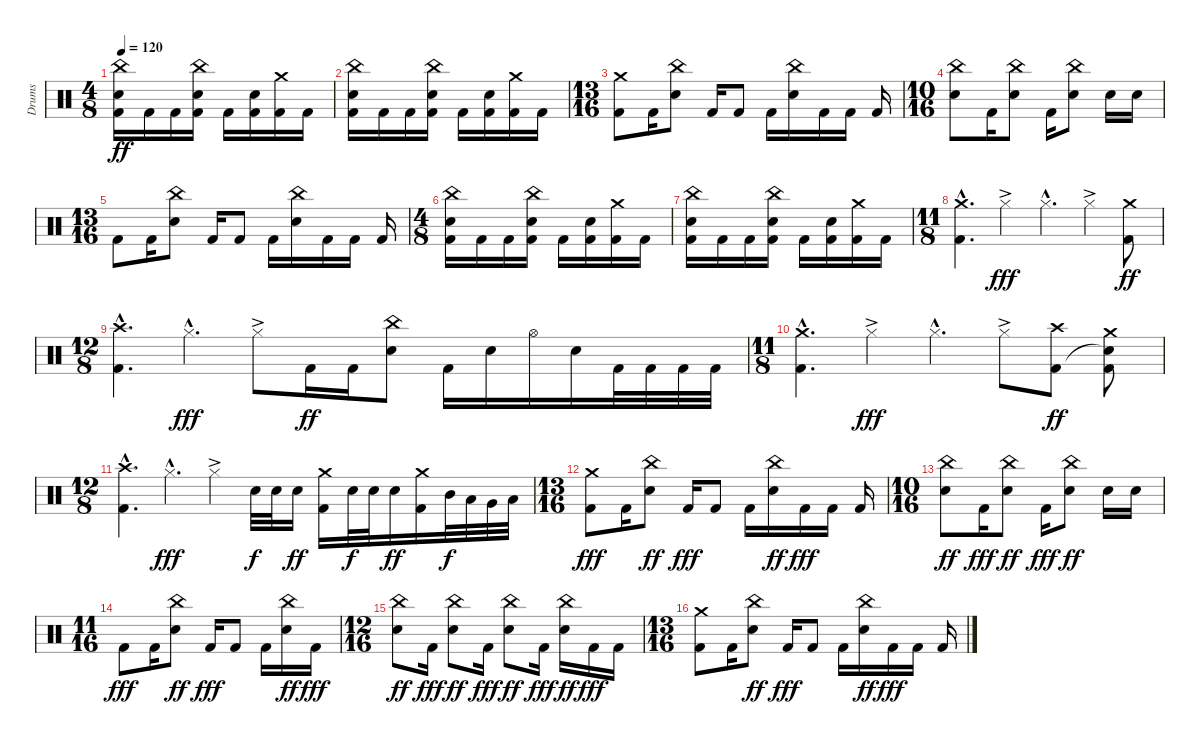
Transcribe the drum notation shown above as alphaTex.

\track ("Drums" "Drums") {instrument percussion}
\staff {score}
\articulation defaults
\ts (4 8)
\tempo 120
\clef neutral
\ks c
("China (hit)" "Snare (hit) 2" "Kick (hit) 2").16{dy ff} "Kick (hit) 2".16 "Kick (hit) 2".16 ("China (hit)" "Snare (hit) 2" "Kick (hit) 2").16 "Kick (hit) 2".16 ("Snare (hit) 2" "Kick (hit) 2").16 ("Crash medium (hit)" "Kick (hit) 2").16 "Kick (hit) 2".16 |
("China (hit)" "Snare (hit) 2" "Kick (hit) 2").16 "Kick (hit) 2".16 "Kick (hit) 2".16 ("China (hit)" "Snare (hit) 2" "Kick (hit) 2").16 "Kick (hit) 2".16 ("Snare (hit) 2" "Kick (hit) 2").16 ("Crash medium (hit)" "Kick (hit) 2").16 "Kick (hit) 2".16 |
\ts (13 16)
("Crash medium (hit)" "Kick (hit) 2").8 "Kick (hit) 2".16 ("China (hit)" "Snare (hit) 2").8 "Kick (hit) 2".16 "Kick (hit) 2".8 "Kick (hit) 2".16 ("China (hit)" "Snare (hit) 2").16 "Kick (hit) 2".16 "Kick (hit) 2".16 "Kick (hit) 2".16 |
\ts (10 16)
("China (hit)" "Snare (hit) 2").8 "Kick (hit) 2".16 ("China (hit)" "Snare (hit) 2").8 "Kick (hit) 2".16 ("China (hit)" "Snare (hit) 2").8 "Snare (hit) 2".16 "Snare (hit) 2".16 |
\ts (13 16)
"Kick (hit) 2".8 "Kick (hit) 2".16 ("China (hit)" "Snare (hit) 2").8 "Kick (hit) 2".16 "Kick (hit) 2".8 "Kick (hit) 2".16 ("China (hit)" "Snare (hit) 2").16 "Kick (hit) 2".16 "Kick (hit) 2".16 "Kick (hit) 2".16 |
\ts (4 8)
("China (hit)" "Snare (hit) 2" "Kick (hit) 2").16 "Kick (hit) 2".16 "Kick (hit) 2".16 ("China (hit)" "Snare (hit) 2" "Kick (hit) 2").16 "Kick (hit) 2".16 ("Snare (hit) 2" "Kick (hit) 2").16 ("Crash medium (hit)" "Kick (hit) 2").16 "Kick (hit) 2".16 |
("China (hit)" "Snare (hit) 2" "Kick (hit) 2").16 "Kick (hit) 2".16 "Kick (hit) 2".16 ("China (hit)" "Snare (hit) 2" "Kick (hit) 2").16 "Kick (hit) 2".16 ("Snare (hit) 2" "Kick (hit) 2").16 ("Crash medium (hit)" "Kick (hit) 2").16 "Kick (hit) 2".16 |
\ts (11 8)
("Crash medium (hit)"{hac} "Kick (hit) 2"{hac}).4{d} "Hi-Hat (closed)"{ac}.4{dy fff} "Hi-Hat (closed)"{hac}.4{d} "Hi-Hat (closed)"{ac}.4 ("Crash medium (hit)" "Kick (hit) 2").8{dy ff} |
\ts (12 8)
("Crash high (hit)"{hac} "Kick (hit) 2"{hac}).4{d} "Hi-Hat (closed)"{hac}.4{d dy fff} "Hi-Hat (closed)"{ac}.8 "Kick (hit) 2".16{dy ff} "Kick (hit) 2".16 ("China (hit)" "Snare (hit) 2").8 "Kick (hit) 2".16 "Snare (hit) 2".16 "Hi-Hat (open)".16 "Snare (hit) 2".16 "Kick (hit) 2".32 "Kick (hit) 2".32 "Kick (hit) 2".32 "Kick (hit) 2".32 |
\ts (11 8)
("Crash medium (hit)"{hac} "Kick (hit) 2"{hac}).4{d} "Hi-Hat (closed)"{ac}.4{dy fff} "Hi-Hat (closed)"{hac}.4{d} "Hi-Hat (closed)"{ac}.8 ("Crash high (hit)" "Kick (hit) 2").8{dy ff} ("Crash medium (hit)" "Snare (hit)"{t} "Kick (hit) 2").8 |
\ts (12 8)
("Crash high (hit)"{hac} "Kick (hit) 2"{hac}).4{d} "Hi-Hat (closed)"{hac}.4{d dy fff} "Hi-Hat (closed)"{ac}.4 "Snare (hit) 2".32{dy f} "Snare (hit) 2".32 "Snare (hit) 2".16{dy ff} ("Crash medium (hit)" "Kick (hit) 2").16 "Snare (hit) 2".32{dy f} "Snare (hit) 2".32 "Snare (hit) 2".16{dy ff} ("Crash medium (hit)" "Kick (hit) 2").16 "Mid Tom (hit)".32{dy f} "Low Tom (hit)".32 "Very Low Tom (hit)".32 "Low Floor Tom (hit)".32 |
\ts (13 16)
("Crash medium (hit)" "Kick (hit) 2").8{dy fff} "Kick (hit) 2".16 ("China (hit)" "Snare (hit) 2").8{dy ff} "Kick (hit) 2".16{dy fff} "Kick (hit) 2".8 "Kick (hit) 2".16 ("China (hit)" "Snare (hit) 2").16{dy ff} "Kick (hit) 2".16{dy fff} "Kick (hit) 2".16 "Kick (hit) 2".16 |
\ts (10 16)
("China (hit)" "Snare (hit) 2").8{dy ff} "Kick (hit) 2".16{dy fff} ("China (hit)" "Snare (hit) 2").8{dy ff} "Kick (hit) 2".16{dy fff} ("China (hit)" "Snare (hit) 2").8{dy ff} "Snare (hit) 2".16 "Snare (hit) 2".16 |
\ts (11 16)
"Kick (hit) 2".8{dy fff} "Kick (hit) 2".16 ("China (hit)" "Snare (hit) 2").8{dy ff} "Kick (hit) 2".16{dy fff} "Kick (hit) 2".8 "Kick (hit) 2".16 ("China (hit)" "Snare (hit) 2").16{dy ff} "Kick (hit) 2".16{dy fff} |
\ts (12 16)
("China (hit)" "Snare (hit) 2").8{dy ff} "Kick (hit) 2".16{dy fff} ("China (hit)" "Snare (hit) 2").8{dy ff} "Kick (hit) 2".16{dy fff} ("China (hit)" "Snare (hit) 2").8{dy ff} "Kick (hit) 2".16{dy fff} ("China (hit)" "Snare (hit) 2").16{dy ff} "Kick (hit) 2".16{dy fff} "Kick (hit) 2".16 |
\ts (13 16)
("Crash medium (hit)" "Kick (hit) 2").8 "Kick (hit) 2".16 ("China (hit)" "Snare (hit) 2").8{dy ff} "Kick (hit) 2".16{dy fff} "Kick (hit) 2".8 "Kick (hit) 2".16 ("China (hit)" "Snare (hit) 2").16{dy ff} "Kick (hit) 2".16{dy fff} "Kick (hit) 2".16 "Kick (hit) 2".16
